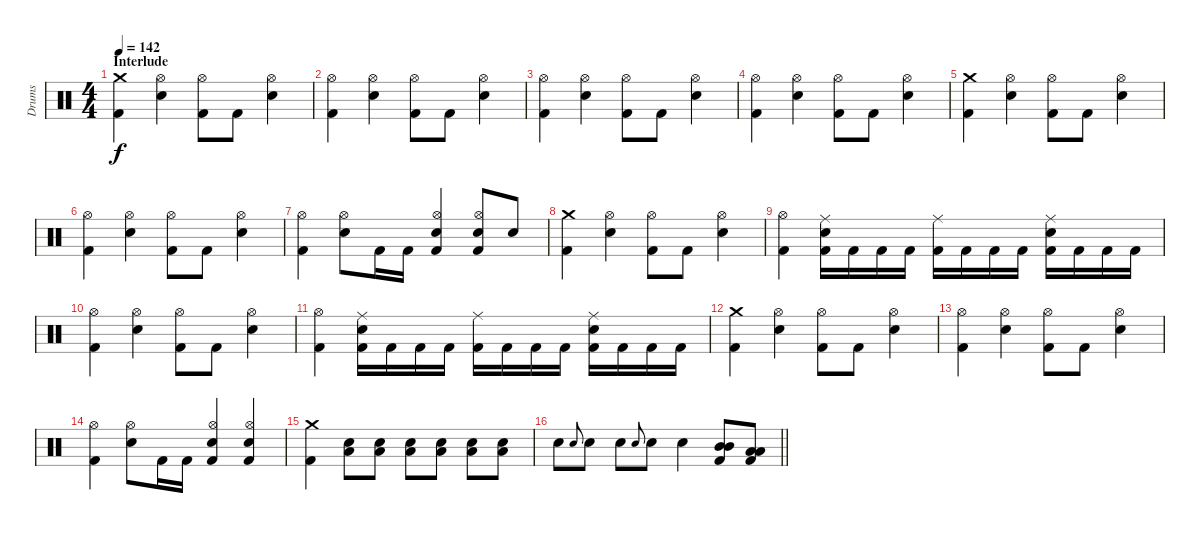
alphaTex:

\track ("Drums" "Drums") {instrument percussion}
\staff {score}
\articulation defaults
\ts (4 4)
\section ("" "Interlude")
\tempo 142
\clef neutral
\ks c
("Crash medium (hit)" "Kick (hit) 2").4{dy f} ("Hi-Hat (open)" "Electric Snare (hit)").4 ("Hi-Hat (open)" "Kick (hit) 2").8 "Kick (hit) 2".8 ("Hi-Hat (open)" "Electric Snare (hit)").4 |
("Hi-Hat (open)" "Kick (hit) 2").4 ("Hi-Hat (open)" "Electric Snare (hit)").4 ("Hi-Hat (open)" "Kick (hit) 2").8 "Kick (hit) 2".8 ("Hi-Hat (open)" "Electric Snare (hit)").4 |
("Hi-Hat (open)" "Kick (hit) 2").4 ("Hi-Hat (open)" "Electric Snare (hit)").4 ("Hi-Hat (open)" "Kick (hit) 2").8 "Kick (hit) 2".8 ("Hi-Hat (open)" "Electric Snare (hit)").4 |
("Hi-Hat (open)" "Kick (hit) 2").4 ("Hi-Hat (open)" "Electric Snare (hit)").4 ("Hi-Hat (open)" "Kick (hit) 2").8 "Kick (hit) 2".8 ("Hi-Hat (open)" "Electric Snare (hit)").4 |
("Crash medium (hit)" "Kick (hit) 2").4 ("Hi-Hat (open)" "Electric Snare (hit)").4 ("Hi-Hat (open)" "Kick (hit) 2").8 "Kick (hit) 2".8 ("Hi-Hat (open)" "Electric Snare (hit)").4 |
("Hi-Hat (open)" "Kick (hit) 2").4 ("Hi-Hat (open)" "Electric Snare (hit)").4 ("Hi-Hat (open)" "Kick (hit) 2").8 "Kick (hit) 2".8 ("Hi-Hat (open)" "Electric Snare (hit)").4 |
("Hi-Hat (open)" "Kick (hit) 2").4 ("Hi-Hat (open)" "Electric Snare (hit)").8 "Kick (hit) 2".16 "Kick (hit) 2".16 ("Hi-Hat (open)" "Electric Snare (hit)" "Kick (hit) 2").4 ("Hi-Hat (open)" "Electric Snare (hit)" "Kick (hit) 2").8 "Electric Snare (hit)".8 |
("Crash medium (hit)" "Kick (hit) 2").4 ("Hi-Hat (open)" "Electric Snare (hit)").4 ("Hi-Hat (open)" "Kick (hit) 2").8 "Kick (hit) 2".8 ("Hi-Hat (open)" "Electric Snare (hit)").4 |
("Hi-Hat (open)" "Kick (hit) 2").4 ("Ride (middle)" "Electric Snare (hit)" "Kick (hit) 2").16 "Kick (hit) 2".16 "Kick (hit) 2".16 "Kick (hit) 2".16 ("Ride (middle)" "Kick (hit) 2").16 "Kick (hit) 2".16 "Kick (hit) 2".16 "Kick (hit) 2".16 ("Ride (middle)" "Electric Snare (hit)" "Kick (hit) 2").16 "Kick (hit) 2".16 "Kick (hit) 2".16 "Kick (hit) 2".16 |
("Hi-Hat (open)" "Kick (hit) 2").4 ("Hi-Hat (open)" "Electric Snare (hit)").4 ("Hi-Hat (open)" "Kick (hit) 2").8 "Kick (hit) 2".8 ("Hi-Hat (open)" "Electric Snare (hit)").4 |
("Hi-Hat (open)" "Kick (hit) 2").4 ("Ride (middle)" "Electric Snare (hit)" "Kick (hit) 2").16 "Kick (hit) 2".16 "Kick (hit) 2".16 "Kick (hit) 2".16 ("Ride (middle)" "Kick (hit) 2").16 "Kick (hit) 2".16 "Kick (hit) 2".16 "Kick (hit) 2".16 ("Ride (middle)" "Electric Snare (hit)" "Kick (hit) 2").16 "Kick (hit) 2".16 "Kick (hit) 2".16 "Kick (hit) 2".16 |
("Crash medium (hit)" "Kick (hit) 2").4 ("Hi-Hat (open)" "Electric Snare (hit)").4 ("Hi-Hat (open)" "Kick (hit) 2").8 "Kick (hit) 2".8 ("Hi-Hat (open)" "Electric Snare (hit)").4 |
("Hi-Hat (open)" "Kick (hit) 2").4 ("Hi-Hat (open)" "Electric Snare (hit)").4 ("Hi-Hat (open)" "Kick (hit) 2").8 "Kick (hit) 2".8 ("Hi-Hat (open)" "Electric Snare (hit)").4 |
("Hi-Hat (open)" "Kick (hit) 2").4 ("Hi-Hat (open)" "Electric Snare (hit)").8 "Kick (hit) 2".16 "Kick (hit) 2".16 ("Hi-Hat (open)" "Electric Snare (hit)" "Kick (hit) 2").4 ("Hi-Hat (open)" "Electric Snare (hit)" "Kick (hit) 2").4 |
("Crash medium (hit)" "Kick (hit) 2").4 ("Electric Snare (hit)" "Low Tom (hit)").8 ("Electric Snare (hit)" "Low Tom (hit)").8 ("Electric Snare (hit)" "Low Tom (hit)").8 ("Electric Snare (hit)" "Low Tom (hit)").8 ("Electric Snare (hit)" "Low Tom (hit)").8 ("Electric Snare (hit)" "Low Tom (hit)").8 |
\barLineRight lightlight "Electric Snare (hit)".8 "Electric Snare (hit)".8{gr onbeat} "Electric Snare (hit)".8 "Electric Snare (hit)".8 "Electric Snare (hit)".8{gr onbeat} "Electric Snare (hit)".8 "Electric Snare (hit)".4
("Mid Tom (hit)" "Mid Tom (hit)" "Kick (hit) 2").8 ("Low Tom (hit)" "Low Tom (hit)" "Kick (hit) 2").8
